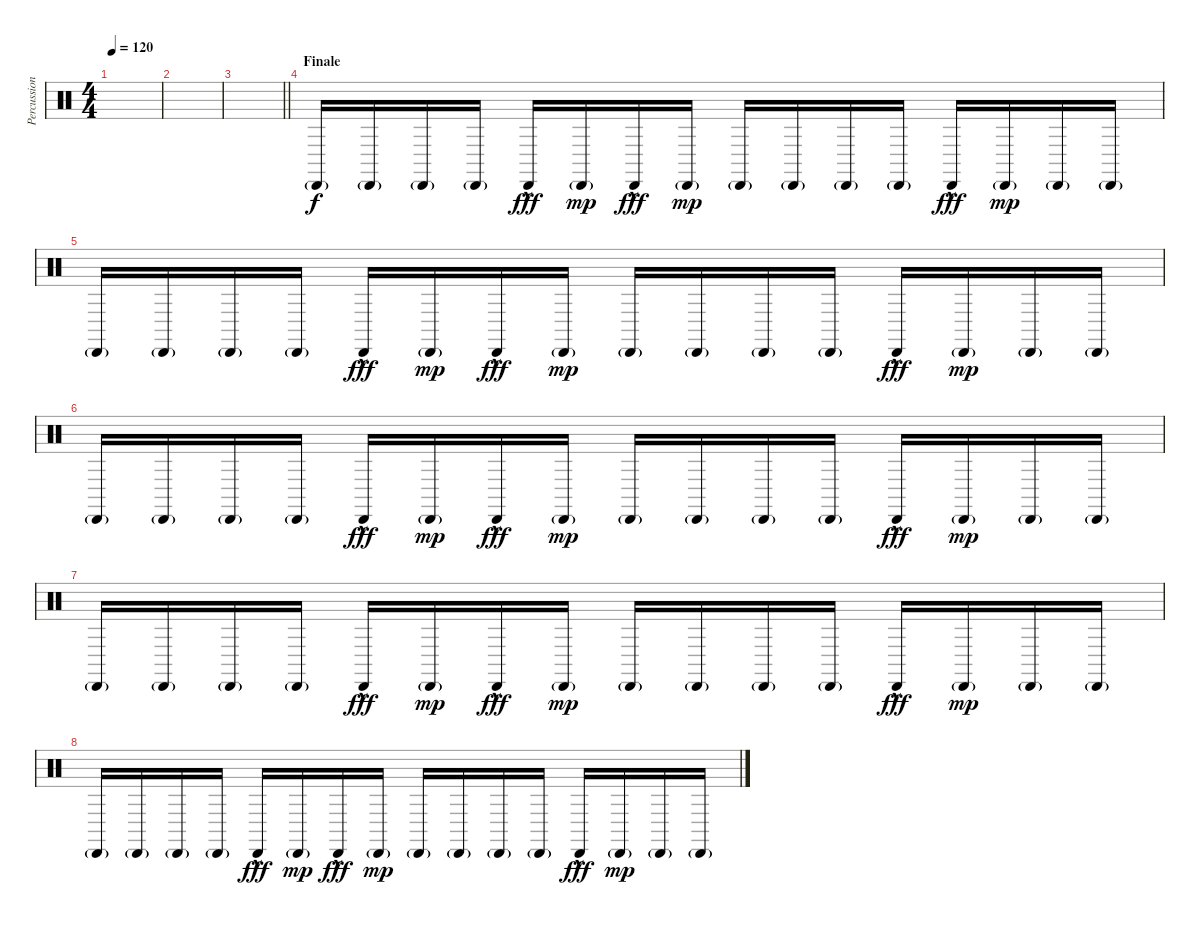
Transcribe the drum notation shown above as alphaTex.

\track ("Percussions" "Percussion") {instrument percussion}
\staff {score}
\articulation defaults
\ts (4 4)
\tempo 120
\clef neutral
\ks c
|
|
\barLineRight lightlight
|
\section ("" "Finale")
"Cabasa (hit)"{g}.16 "Cabasa (hit)"{g}.16 "Cabasa (hit)"{g}.16 "Cabasa (hit)"{g}.16 "Cabasa (hit)"{hac}.16{dy fff} "Cabasa (hit)"{g}.16{dy mp} "Cabasa (hit)"{hac}.16{dy fff} "Cabasa (hit)"{g}.16{dy mp} "Cabasa (hit)"{g}.16 "Cabasa (hit)"{g}.16 "Cabasa (hit)"{g}.16 "Cabasa (hit)"{g}.16 "Cabasa (hit)"{hac}.16{dy fff} "Cabasa (hit)"{g}.16{dy mp} "Cabasa (hit)"{g}.16 "Cabasa (hit)"{g}.16 |
"Cabasa (hit)"{g}.16 "Cabasa (hit)"{g}.16 "Cabasa (hit)"{g}.16 "Cabasa (hit)"{g}.16 "Cabasa (hit)"{hac}.16{dy fff} "Cabasa (hit)"{g}.16{dy mp} "Cabasa (hit)"{hac}.16{dy fff} "Cabasa (hit)"{g}.16{dy mp} "Cabasa (hit)"{g}.16 "Cabasa (hit)"{g}.16 "Cabasa (hit)"{g}.16 "Cabasa (hit)"{g}.16 "Cabasa (hit)"{hac}.16{dy fff} "Cabasa (hit)"{g}.16{dy mp} "Cabasa (hit)"{g}.16 "Cabasa (hit)"{g}.16 |
"Cabasa (hit)"{g}.16 "Cabasa (hit)"{g}.16 "Cabasa (hit)"{g}.16 "Cabasa (hit)"{g}.16 "Cabasa (hit)"{hac}.16{dy fff} "Cabasa (hit)"{g}.16{dy mp} "Cabasa (hit)"{hac}.16{dy fff} "Cabasa (hit)"{g}.16{dy mp} "Cabasa (hit)"{g}.16 "Cabasa (hit)"{g}.16 "Cabasa (hit)"{g}.16 "Cabasa (hit)"{g}.16 "Cabasa (hit)"{hac}.16{dy fff} "Cabasa (hit)"{g}.16{dy mp} "Cabasa (hit)"{g}.16 "Cabasa (hit)"{g}.16 |
"Cabasa (hit)"{g}.16 "Cabasa (hit)"{g}.16 "Cabasa (hit)"{g}.16 "Cabasa (hit)"{g}.16 "Cabasa (hit)"{hac}.16{dy fff} "Cabasa (hit)"{g}.16{dy mp} "Cabasa (hit)"{hac}.16{dy fff} "Cabasa (hit)"{g}.16{dy mp} "Cabasa (hit)"{g}.16 "Cabasa (hit)"{g}.16 "Cabasa (hit)"{g}.16 "Cabasa (hit)"{g}.16 "Cabasa (hit)"{hac}.16{dy fff} "Cabasa (hit)"{g}.16{dy mp} "Cabasa (hit)"{g}.16 "Cabasa (hit)"{g}.16 |
"Cabasa (hit)"{g}.16 "Cabasa (hit)"{g}.16 "Cabasa (hit)"{g}.16 "Cabasa (hit)"{g}.16 "Cabasa (hit)"{hac}.16{dy fff} "Cabasa (hit)"{g}.16{dy mp} "Cabasa (hit)"{hac}.16{dy fff} "Cabasa (hit)"{g}.16{dy mp} "Cabasa (hit)"{g}.16 "Cabasa (hit)"{g}.16 "Cabasa (hit)"{g}.16 "Cabasa (hit)"{g}.16 "Cabasa (hit)"{hac}.16{dy fff} "Cabasa (hit)"{g}.16{dy mp} "Cabasa (hit)"{g}.16 "Cabasa (hit)"{g}.16
